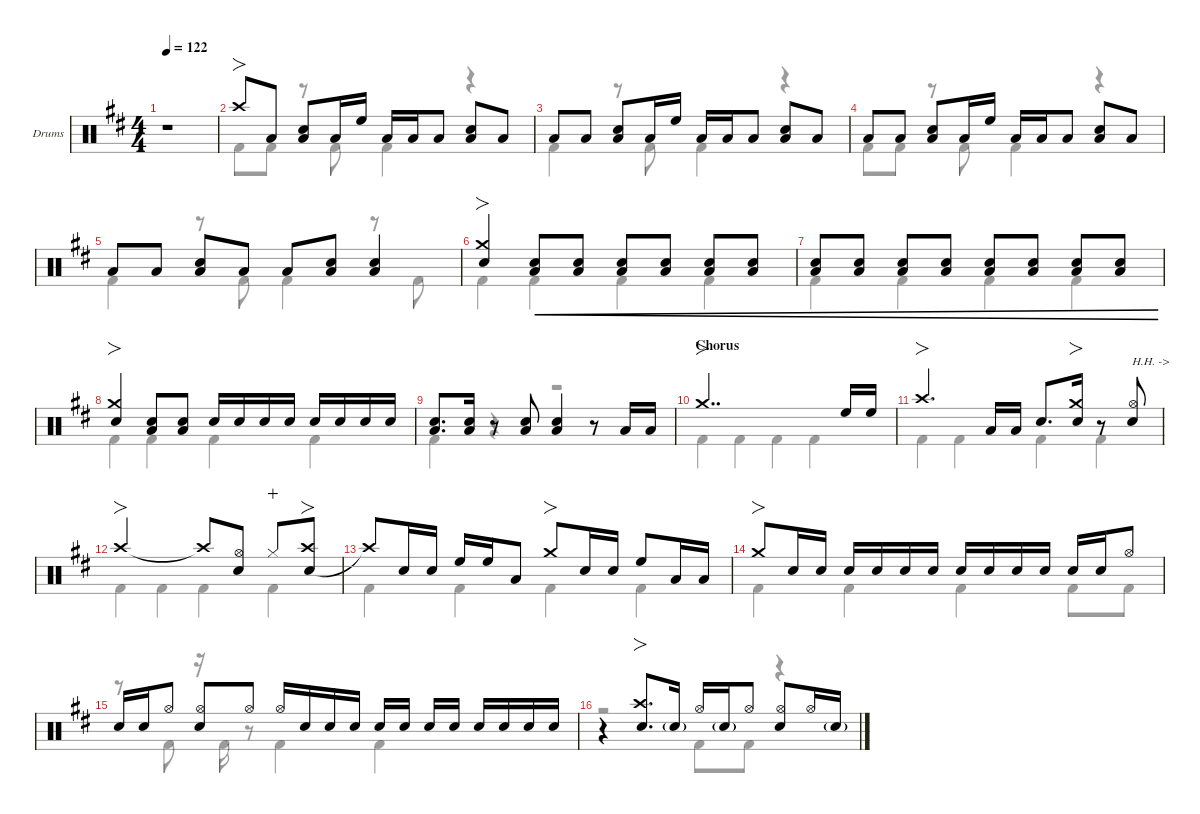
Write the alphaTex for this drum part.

\defaultSystemsLayout 4
\hideDynamics
\bracketExtendMode nobrackets
\firstSystemTrackNameOrientation horizontal
\track ("Drums" "Drums") {defaultSystemsLayout 4 instrument percussion}
\staff {score}
\articulation defaults
\voice
\ts (4 4)
\tempo 122
\clef neutral
\scale
0.244461
\ks d
r.1{dy f beam Up} |
\scale
0.266618 "Crash high (hit)"{acc forcenatural}.8{fo beam Up} "Low Tom (hit)"{acc forcenatural}.8{beam Up beam split} ("Low Tom (hit)"{acc forcenatural} "Snare (hit) 2"{acc forcenatural}).8{beam Up} "Low Tom (hit)"{acc forcenatural}.16{beam Up} "High Floor Tom (hit)"{acc forcenatural}.16{beam Up} "Low Tom (hit)"{acc forcenatural}.16{beam Up} "Low Tom (hit)"{acc forcenatural}.16{beam Up} "Low Tom (hit)"{acc forcenatural}.8{beam Up beam split} ("Low Tom (hit)"{acc forcenatural} "Snare (hit) 2"{acc forcenatural}).8{beam Up} "Low Tom (hit)"{acc forcenatural}.8{beam Up} |
\scale
0.244461 "Low Tom (hit)"{acc forcenatural}.8{beam Up} "Low Tom (hit)"{acc forcenatural}.8{beam Up beam split} ("Low Tom (hit)"{acc forcenatural} "Snare (hit) 2"{acc forcenatural}).8{beam Up} "Low Tom (hit)"{acc forcenatural}.16{beam Up} "High Floor Tom (hit)"{acc forcenatural}.16{beam Up} "Low Tom (hit)"{acc forcenatural}.16{beam Up} "Low Tom (hit)"{acc forcenatural}.16{beam Up} "Low Tom (hit)"{acc forcenatural}.8{beam Up beam split} ("Low Tom (hit)"{acc forcenatural} "Snare (hit) 2"{acc forcenatural}).8{beam Up} "Low Tom (hit)"{acc forcenatural}.8{beam Up} |
\scale
0.24446 "Low Tom (hit)"{acc forcenatural}.8{beam Up} "Low Tom (hit)"{acc forcenatural}.8{beam Up beam split} ("Low Tom (hit)"{acc forcenatural} "Snare (hit) 2"{acc forcenatural}).8{beam Up} "Low Tom (hit)"{acc forcenatural}.16{beam Up} "High Floor Tom (hit)"{acc forcenatural}.16{beam Up} "Low Tom (hit)"{acc forcenatural}.16{beam Up} "Low Tom (hit)"{acc forcenatural}.16{beam Up} "Low Tom (hit)"{acc forcenatural}.8{beam Up beam split} ("Low Tom (hit)"{acc forcenatural} "Snare (hit) 2"{acc forcenatural}).8{beam Up} "Low Tom (hit)"{acc forcenatural}.8{beam Up} |
\scale
0.244461 "Low Tom (hit)"{acc forcenatural}.8{beam Up} "Low Tom (hit)"{acc forcenatural}.8{beam Up beam split} ("Low Tom (hit)"{acc forcenatural} "Snare (hit) 2"{acc forcenatural}).8{beam Up} "Low Tom (hit)"{acc forcenatural}.8{beam Up} "Low Tom (hit)"{acc forcenatural}.8{beam Up} ("Low Tom (hit)"{acc forcenatural} "Snare (hit) 2"{acc forcenatural}).8{beam Up} ("Low Tom (hit)"{acc forcenatural} "Snare (hit) 2"{acc forcenatural}).4{beam Up} |
\scale
0.266618 ("Crash medium (hit)"{acc forcenatural} "Snare (hit) 2"{acc forcenatural}).4{fo beam Up} ("Snare (hit) 2"{acc forcenatural} "Low Tom (hit)"{acc forcenatural}).8{cre beam Up} ("Snare (hit) 2"{acc forcenatural} "Low Tom (hit)"{acc forcenatural}).8{cre beam Up} ("Snare (hit) 2"{acc forcenatural} "Low Tom (hit)"{acc forcenatural}).8{cre beam Up} ("Snare (hit) 2"{acc forcenatural} "Low Tom (hit)"{acc forcenatural}).8{cre beam Up} ("Snare (hit) 2"{acc forcenatural} "Low Tom (hit)"{acc forcenatural}).8{cre beam Up} ("Snare (hit) 2"{acc forcenatural} "Low Tom (hit)"{acc forcenatural}).8{cre beam Up} |
\scale
0.244461 ("Snare (hit) 2"{acc forcenatural} "Low Tom (hit)"{acc forcenatural}).8{cre beam Up} ("Snare (hit) 2"{acc forcenatural} "Low Tom (hit)"{acc forcenatural}).8{cre beam Up} ("Snare (hit) 2"{acc forcenatural} "Low Tom (hit)"{acc forcenatural}).8{cre beam Up} ("Snare (hit) 2"{acc forcenatural} "Low Tom (hit)"{acc forcenatural}).8{cre beam Up} ("Snare (hit) 2"{acc forcenatural} "Low Tom (hit)"{acc forcenatural}).8{cre beam Up} ("Snare (hit) 2"{acc forcenatural} "Low Tom (hit)"{acc forcenatural}).8{cre beam Up} ("Snare (hit) 2"{acc forcenatural} "Low Tom (hit)"{acc forcenatural}).8{cre beam Up} ("Snare (hit) 2"{acc forcenatural} "Low Tom (hit)"{acc forcenatural}).8{cre beam Up} |
\scale
0.244461 ("Crash medium (hit)"{acc forcenatural} "Snare (hit) 2"{acc forcenatural}).4{fo beam Up} ("Snare (hit) 2"{acc forcenatural} "Low Tom (hit)"{acc forcenatural}).8{beam Up} ("Snare (hit) 2"{acc forcenatural} "Low Tom (hit)"{acc forcenatural}).8{beam Up} "Snare (hit) 2"{acc forcenatural}.16{beam Up} "Snare (hit) 2"{acc forcenatural}.16{dy mp beam Up} "Snare (hit) 2"{acc forcenatural}.16{dy mf beam Up} "Snare (hit) 2"{acc forcenatural}.16{dy mp beam Up beam split} "Snare (hit) 2"{acc forcenatural}.16{dy f beam Up} "Snare (hit) 2"{acc forcenatural}.16{dy mp beam Up} "Snare (hit) 2"{acc forcenatural}.16{dy mf beam Up} "Snare (hit) 2"{acc forcenatural}.16{dy mp beam Up} |
\scale
0.244461 ("Snare (hit) 2"{acc forcenatural} "Low Tom (hit)"{acc forcenatural}).8{d dy f beam Up} ("Snare (hit) 2"{acc forcenatural} "Low Tom (hit)"{acc forcenatural}).16{beam Up beam split} r.8{beam Up beam split} ("Low Tom (hit)"{acc forcenatural} "Snare (hit) 2"{acc forcenatural}).8{beam Up} ("Low Tom (hit)"{acc forcenatural} "Snare (hit) 2"{acc forcenatural}).4{beam Up} r.8{beam Up} "Low Tom (hit)"{acc forcenatural}.16{beam Up} "Low Tom (hit)"{acc forcenatural}.16{beam Up} |
\section ("" "Chorus")
\scale
0.266618 "Crash medium (hit)"{acc forcenatural}.2{fo dd beam Up} "High Floor Tom (hit)"{acc forcenatural}.16{beam Up} "High Floor Tom (hit)"{acc forcenatural}.16{beam Up} |
\scale
0.244461 "Crash high (hit)"{acc forcenatural}.4{fo d beam Up} "Low Tom (hit)"{acc forcenatural}.16{beam Up} "Low Tom (hit)"{acc forcenatural}.16{beam Up} "Snare (hit) 2"{acc forcenatural}.8{d beam Up} ("Snare (hit) 2"{acc forcenatural} "Crash medium (hit)"{acc forcenatural}).16{fo beam Up beam split} r.8{beam Up beam split} ("Snare (hit) 2"{acc forcenatural} "Hi-Hat (open)"{acc forcenatural}).8{txt "H.H. ->" beam Up} |
\scale
0.244461 "Crash high (hit)"{acc forcenatural}.2{fo beam Up} "Crash high (hit)"{t acc forcenatural}.8{beam Up} ("Snare (hit) 2"{acc forcenatural} "Hi-Hat (open)"{acc forcenatural}).8{beam Up} "Hi-Hat (closed)"{acc forcenatural}.8{dy mp wahc beam Up} ("Snare (hit) 2"{acc forcenatural} "Crash high (hit)"{acc forcenatural}).8{fo dy f beam Up} |
\scale
0.244461 "Crash high (hit)"{t acc forcenatural}.8{beam Up} "Snare (hit) 2"{acc forcenatural}.16{beam Up} "Snare (hit) 2"{acc forcenatural}.16{dy mf beam Up beam split} "High Floor Tom (hit)"{acc forcenatural}.16{beam Up} "High Floor Tom (hit)"{acc forcenatural}.16{beam Up} "Low Tom (hit)"{acc forcenatural}.8{beam Up} "Crash medium (hit)"{acc forcenatural}.8{fo dy f beam Up} "Snare (hit) 2"{acc forcenatural}.16{beam Up} "Snare (hit) 2"{acc forcenatural}.16{beam Up beam split} "High Floor Tom (hit)"{acc forcenatural}.8{beam Up} "Low Tom (hit)"{acc forcenatural}.16{beam Up} "Low Tom (hit)"{acc forcenatural}.16{beam Up} |
\scale
0.511079 "Crash medium (hit)"{acc forcenatural}.8{fo beam Up} "Snare (hit) 2"{acc forcenatural}.16{beam Up} "Snare (hit) 2"{acc forcenatural}.16{dy mf beam Up beam split} "Snare (hit) 2"{acc forcenatural}.16{dy f beam Up} "Snare (hit) 2"{acc forcenatural}.16{dy mp beam Up} "Snare (hit) 2"{acc forcenatural}.16{dy mf beam Up} "Snare (hit) 2"{acc forcenatural}.16{dy mp beam Up} "Snare (hit) 2"{acc forcenatural}.16{dy f beam Up} "Snare (hit) 2"{acc forcenatural}.16{dy mp beam Up} "Snare (hit) 2"{acc forcenatural}.16{dy mf beam Up} "Snare (hit) 2"{acc forcenatural}.16{dy mp beam Up beam split} "Snare (hit) 2"{acc forcenatural}.16{dy f beam Up beam merge} "Snare (hit) 2"{acc forcenatural}.16{dy mf beam Up beam merge} "Hi-Hat (open)"{acc forcenatural}.8{dy f beam Up} |
\scale
0.488921 "Snare (hit) 2"{acc forcenatural}.16{beam Up} "Snare (hit) 2"{acc forcenatural}.16{dy mf beam Up} "Hi-Hat (open)"{acc forcenatural}.8{dy f beam Up beam split} ("Hi-Hat (open)"{acc forcenatural} "Snare (hit) 2"{acc forcenatural}).8{beam Up} "Hi-Hat (open)"{acc forcenatural}.8{beam Up} "Hi-Hat (open)"{acc forcenatural}.16{beam Up} "Snare (hit) 2"{acc forcenatural}.16{dy mf beam Up} "Snare (hit) 2"{acc forcenatural}.16{dy mp beam Up} "Snare (hit) 2"{acc forcenatural}.16{dy f beam Up} "Snare (hit) 2"{acc forcenatural}.16{dy mf beam Up} "Snare (hit) 2"{acc forcenatural}.16{dy mp beam Up beam split} "Snare (hit) 2"{acc forcenatural}.16{dy f beam Up} "Snare (hit) 2"{acc forcenatural}.16{dy mf beam Up} "Snare (hit) 2"{acc forcenatural}.16{dy mp beam Up} "Snare (hit) 2"{acc forcenatural}.16{dy f beam Up} "Snare (hit) 2"{acc forcenatural}.16{dy mf beam Up} "Snare (hit) 2"{acc forcenatural}.16{dy mp beam Up} |
\scale
0.266618 r.4{beam Up} ("Snare (hit) 2"{acc forcenatural} "Crash high (hit)"{acc forcenatural}).8{fo d dy f beam Up} "Snare (hit) 2"{g acc forcenatural}.16{dy mf beam Up} "Hi-Hat (open)"{acc forcenatural}.16{dy f beam Up} "Snare (hit) 2"{g acc forcenatural}.16{dy mf beam Up} "Hi-Hat (open)"{acc forcenatural}.8{beam Up beam split} ("Hi-Hat (open)"{acc forcenatural} "Snare (hit) 2"{acc forcenatural}).8{dy f beam Up} "Hi-Hat (open)"{acc forcenatural}.16{dy mf beam Up} "Snare (hit) 2"{g acc forcenatural}.16{beam Up}
\voice
\clef neutral
\ottava regular
\simile none
\scale
0.244461
\ks d
r.1{dy f beam Down} |
\scale
0.266618 "Kick (hit) 2"{acc forcenatural}.8{beam Down} "Kick (hit) 2"{acc forcenatural}.8{beam Down} r.8{beam Down} "Kick (hit) 2"{acc forcenatural}.8{beam Down} "Kick (hit) 2"{acc forcenatural}.4{beam Down} r.4{beam Down} |
\scale
0.244461 "Kick (hit) 2"{acc forcenatural}.4{beam Down} r.8{beam Down} "Kick (hit) 2"{acc forcenatural}.8{beam Down} "Kick (hit) 2"{acc forcenatural}.4{beam Down} r.4{beam Down} |
\scale
0.24446 "Kick (hit) 2"{acc forcenatural}.8{beam Down} "Kick (hit) 2"{acc forcenatural}.8{beam Down} r.8{beam Down} "Kick (hit) 2"{acc forcenatural}.8{beam Down} "Kick (hit) 2"{acc forcenatural}.4{beam Down} r.4{beam Down} |
\scale
0.244461 "Kick (hit) 2"{acc forcenatural}.4{beam Down} r.8{beam Down} "Kick (hit) 2"{acc forcenatural}.8{beam Down} "Kick (hit) 2"{acc forcenatural}.4{beam Down} r.8{beam Down} "Kick (hit) 2"{acc forcenatural}.8{beam Down} |
\scale
0.266618 "Kick (hit) 2"{acc forcenatural}.4{beam Down} "Kick (hit) 2"{acc forcenatural}.4{beam Down} "Kick (hit) 2"{acc forcenatural}.4{beam Down} "Kick (hit) 2"{acc forcenatural}.4{beam Down} |
\scale
0.244461 "Kick (hit) 2"{acc forcenatural}.4{beam Down} "Kick (hit) 2"{acc forcenatural}.4{beam Down} "Kick (hit) 2"{acc forcenatural}.4{beam Down} "Kick (hit) 2"{acc forcenatural}.4{beam Down} |
\scale
0.244461 "Kick (hit) 2"{acc forcenatural}.4{beam Down} "Kick (hit) 2"{acc forcenatural}.4{beam Down} "Kick (hit) 2"{acc forcenatural}.4{beam Down} "Kick (hit) 2"{acc forcenatural}.4{beam Down} |
\scale
0.244461 "Kick (hit) 2"{acc forcenatural}.4{beam Down} r.4{beam Down} r.2{beam Down} |
\scale
0.266618 "Kick (hit) 2"{acc forcenatural}.4{beam Down} "Kick (hit) 2"{acc forcenatural}.4{beam Down} "Kick (hit) 2"{acc forcenatural}.4{beam Down} "Kick (hit) 2"{acc forcenatural}.4{beam Down} |
\scale
0.244461 "Kick (hit) 2"{acc forcenatural}.4{beam Down} "Kick (hit) 2"{acc forcenatural}.4{beam Down} "Kick (hit) 2"{acc forcenatural}.4{beam Down} "Kick (hit) 2"{acc forcenatural}.4{beam Down} |
\scale
0.244461 "Kick (hit) 2"{acc forcenatural}.4{beam Down} "Kick (hit) 2"{acc forcenatural}.4{beam Down} "Kick (hit) 2"{acc forcenatural}.4{beam Down} "Kick (hit) 2"{acc forcenatural}.4{beam Down} |
\scale
0.244461 "Kick (hit) 2"{acc forcenatural}.4{beam Down} "Kick (hit) 2"{acc forcenatural}.4{beam Down} "Kick (hit) 2"{acc forcenatural}.4{beam Down} "Kick (hit) 2"{acc forcenatural}.4{beam Down} |
\scale
0.511079 "Kick (hit) 2"{acc forcenatural}.4{beam Down} "Kick (hit) 2"{acc forcenatural}.4{beam Down} "Kick (hit) 2"{acc forcenatural}.4{beam Down} "Kick (hit) 2"{acc forcenatural}.8{beam Down} "Kick (hit) 2"{acc forcenatural}.8{beam Down} |
\scale
0.488921 r.8{beam Down} "Kick (hit) 2"{acc forcenatural}.8{beam Down beam split} r.16{beam Down beam split} "Kick (hit) 2"{acc forcenatural}.16{beam Down} r.8{beam Down} "Kick (hit) 2"{acc forcenatural}.4{beam Down} "Kick (hit) 2"{acc forcenatural}.4{beam Down} |
\scale
0.266618 r.2{beam Down} "Kick (hit) 2"{acc forcenatural}.8{beam Down} "Kick (hit) 2"{acc forcenatural}.8{beam Down} r.4{beam Down}
